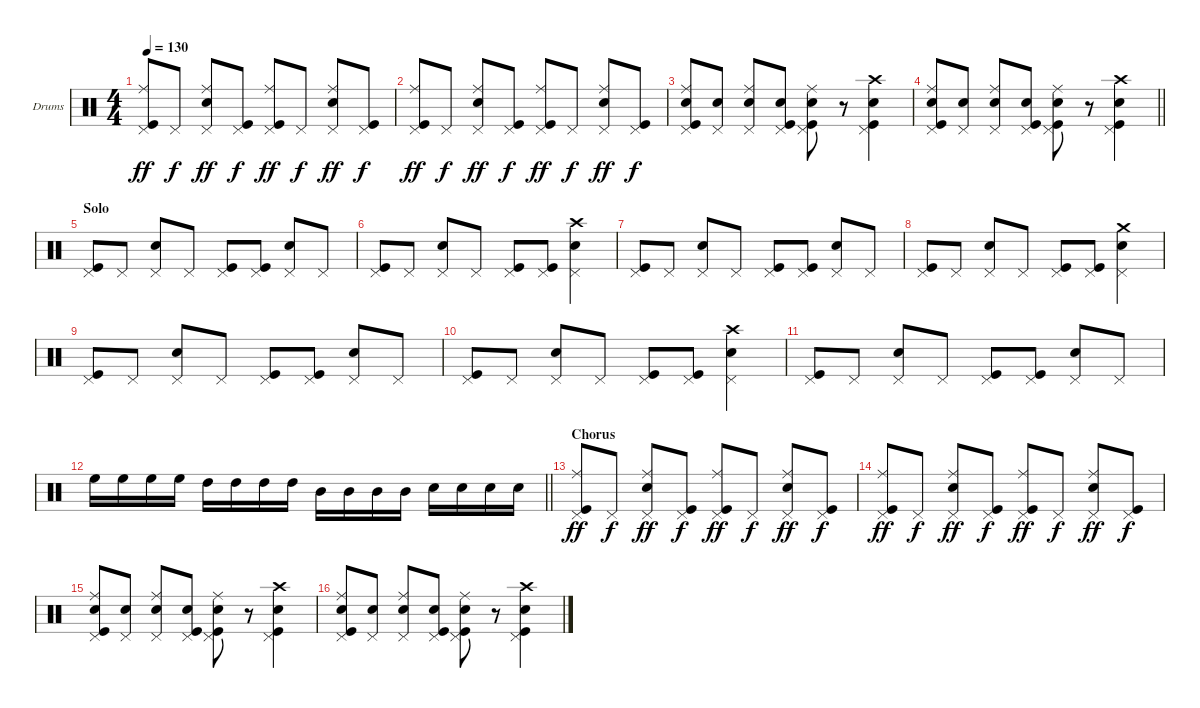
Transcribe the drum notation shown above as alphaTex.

\bracketExtendMode groupsimilarinstruments
\firstSystemTrackNameOrientation horizontal
\otherSystemsTrackNameOrientation horizontal
\track ("Drumkit" "Drums") {instrument percussion}
\staff {score}
\articulation defaults
\ts (4 4)
\tempo 130
\clef neutral
\ks c
("Ride (middle)" "Pedal Hi-Hat (hit)" "Kick (hit)").8{dy ff} "Pedal Hi-Hat (hit)".8{dy f} ("Ride (middle)" "Snare (hit) 2" "Pedal Hi-Hat (hit)").8{dy ff} ("Pedal Hi-Hat (hit)" "Kick (hit)").8{dy f} ("Ride (middle)" "Pedal Hi-Hat (hit)" "Kick (hit)").8{dy ff} "Pedal Hi-Hat (hit)".8{dy f} ("Ride (middle)" "Snare (hit) 2" "Pedal Hi-Hat (hit)").8{dy ff} ("Pedal Hi-Hat (hit)" "Kick (hit)").8{dy f} |
("Ride (middle)" "Pedal Hi-Hat (hit)" "Kick (hit)").8{dy ff} "Pedal Hi-Hat (hit)".8{dy f} ("Ride (middle)" "Snare (hit) 2" "Pedal Hi-Hat (hit)").8{dy ff} ("Pedal Hi-Hat (hit)" "Kick (hit)").8{dy f} ("Ride (middle)" "Pedal Hi-Hat (hit)" "Kick (hit)").8{dy ff} "Pedal Hi-Hat (hit)".8{dy f} ("Ride (middle)" "Snare (hit) 2" "Pedal Hi-Hat (hit)").8{dy ff} ("Pedal Hi-Hat (hit)" "Kick (hit)").8{dy f} |
("Ride (middle)" "Pedal Hi-Hat (hit)" "Snare (hit) 2" "Kick (hit)").8 ("Pedal Hi-Hat (hit)" "Snare (hit) 2").8 ("Ride (middle)" "Pedal Hi-Hat (hit)" "Snare (hit) 2").8 ("Pedal Hi-Hat (hit)" "Snare (hit) 2" "Kick (hit)").8 ("Ride (middle)" "Pedal Hi-Hat (hit)" "Snare (hit) 2" "Kick (hit)").8 r.8 ("Crash high (hit)" "Pedal Hi-Hat (hit)" "Snare (hit) 2" "Kick (hit)").4 |
\barLineRight lightlight
("Ride (middle)" "Pedal Hi-Hat (hit)" "Snare (hit) 2" "Kick (hit)").8 ("Pedal Hi-Hat (hit)" "Snare (hit) 2").8 ("Ride (middle)" "Pedal Hi-Hat (hit)" "Snare (hit) 2").8 ("Pedal Hi-Hat (hit)" "Snare (hit) 2" "Kick (hit)").8 ("Ride (middle)" "Pedal Hi-Hat (hit)" "Snare (hit) 2" "Kick (hit)").8 r.8 ("Crash high (hit)" "Pedal Hi-Hat (hit)" "Snare (hit) 2" "Kick (hit)").4 |
\section ("" "Solo")
("Pedal Hi-Hat (hit)" "Kick (hit)").8 "Pedal Hi-Hat (hit)".8 ("Snare (hit) 2" "Pedal Hi-Hat (hit)").8 "Pedal Hi-Hat (hit)".8 ("Pedal Hi-Hat (hit)" "Kick (hit)").8 ("Pedal Hi-Hat (hit)" "Kick (hit)").8 ("Snare (hit) 2" "Pedal Hi-Hat (hit)").8 "Pedal Hi-Hat (hit)".8 |
("Pedal Hi-Hat (hit)" "Kick (hit)").8 "Pedal Hi-Hat (hit)".8 ("Snare (hit) 2" "Pedal Hi-Hat (hit)").8 "Pedal Hi-Hat (hit)".8 ("Pedal Hi-Hat (hit)" "Kick (hit)").8 ("Pedal Hi-Hat (hit)" "Kick (hit)").8 ("Crash high (hit)" "Snare (hit) 2" "Pedal Hi-Hat (hit)").4 |
("Pedal Hi-Hat (hit)" "Kick (hit)").8 "Pedal Hi-Hat (hit)".8 ("Snare (hit) 2" "Pedal Hi-Hat (hit)").8 "Pedal Hi-Hat (hit)".8 ("Pedal Hi-Hat (hit)" "Kick (hit)").8 ("Pedal Hi-Hat (hit)" "Kick (hit)").8 ("Snare (hit) 2" "Pedal Hi-Hat (hit)").8 "Pedal Hi-Hat (hit)".8 |
("Pedal Hi-Hat (hit)" "Kick (hit)").8 "Pedal Hi-Hat (hit)".8 ("Snare (hit) 2" "Pedal Hi-Hat (hit)").8 "Pedal Hi-Hat (hit)".8 ("Pedal Hi-Hat (hit)" "Kick (hit)").8 ("Pedal Hi-Hat (hit)" "Kick (hit)").8 ("Crash medium (hit)" "Snare (hit) 2" "Pedal Hi-Hat (hit)").4 |
("Pedal Hi-Hat (hit)" "Kick (hit)").8 "Pedal Hi-Hat (hit)".8 ("Snare (hit) 2" "Pedal Hi-Hat (hit)").8 "Pedal Hi-Hat (hit)".8 ("Pedal Hi-Hat (hit)" "Kick (hit)").8 ("Pedal Hi-Hat (hit)" "Kick (hit)").8 ("Snare (hit) 2" "Pedal Hi-Hat (hit)").8 "Pedal Hi-Hat (hit)".8 |
("Pedal Hi-Hat (hit)" "Kick (hit)").8 "Pedal Hi-Hat (hit)".8 ("Snare (hit) 2" "Pedal Hi-Hat (hit)").8 "Pedal Hi-Hat (hit)".8 ("Pedal Hi-Hat (hit)" "Kick (hit)").8 ("Pedal Hi-Hat (hit)" "Kick (hit)").8 ("Crash high (hit)" "Snare (hit) 2" "Pedal Hi-Hat (hit)").4 |
("Pedal Hi-Hat (hit)" "Kick (hit)").8 "Pedal Hi-Hat (hit)".8 ("Snare (hit) 2" "Pedal Hi-Hat (hit)").8 "Pedal Hi-Hat (hit)".8 ("Pedal Hi-Hat (hit)" "Kick (hit)").8 ("Pedal Hi-Hat (hit)" "Kick (hit)").8 ("Snare (hit) 2" "Pedal Hi-Hat (hit)").8 "Pedal Hi-Hat (hit)".8 |
\barLineRight lightlight "High Floor Tom (hit)".16 "High Floor Tom (hit)".16 "High Floor Tom (hit)".16 "High Floor Tom (hit)".16 "High Tom (hit)".16 "High Tom (hit)".16 "High Tom (hit)".16 "High Tom (hit)".16 "Mid Tom (hit)".16 "Mid Tom (hit)".16 "Mid Tom (hit)".16 "Mid Tom (hit)".16 "Snare (hit) 2".16 "Snare (hit) 2".16 "Snare (hit) 2".16 "Snare (hit) 2".16
|
\section ("" "Chorus")
("Ride (middle)" "Pedal Hi-Hat (hit)" "Kick (hit)").8{dy ff} "Pedal Hi-Hat (hit)".8{dy f} ("Ride (middle)" "Snare (hit) 2" "Pedal Hi-Hat (hit)").8{dy ff} ("Pedal Hi-Hat (hit)" "Kick (hit)").8{dy f} ("Ride (middle)" "Pedal Hi-Hat (hit)" "Kick (hit)").8{dy ff} "Pedal Hi-Hat (hit)".8{dy f} ("Ride (middle)" "Snare (hit) 2" "Pedal Hi-Hat (hit)").8{dy ff} ("Pedal Hi-Hat (hit)" "Kick (hit)").8{dy f} |
("Ride (middle)" "Pedal Hi-Hat (hit)" "Kick (hit)").8{dy ff} "Pedal Hi-Hat (hit)".8{dy f} ("Ride (middle)" "Snare (hit) 2" "Pedal Hi-Hat (hit)").8{dy ff} ("Pedal Hi-Hat (hit)" "Kick (hit)").8{dy f} ("Ride (middle)" "Pedal Hi-Hat (hit)" "Kick (hit)").8{dy ff} "Pedal Hi-Hat (hit)".8{dy f} ("Ride (middle)" "Snare (hit) 2" "Pedal Hi-Hat (hit)").8{dy ff} ("Pedal Hi-Hat (hit)" "Kick (hit)").8{dy f} |
("Ride (middle)" "Pedal Hi-Hat (hit)" "Snare (hit) 2" "Kick (hit)").8 ("Pedal Hi-Hat (hit)" "Snare (hit) 2").8 ("Ride (middle)" "Pedal Hi-Hat (hit)" "Snare (hit) 2").8 ("Pedal Hi-Hat (hit)" "Snare (hit) 2" "Kick (hit)").8 ("Ride (middle)" "Pedal Hi-Hat (hit)" "Snare (hit) 2" "Kick (hit)").8 r.8 ("Crash high (hit)" "Pedal Hi-Hat (hit)" "Snare (hit) 2" "Kick (hit)").4 |
("Ride (middle)" "Pedal Hi-Hat (hit)" "Snare (hit) 2" "Kick (hit)").8 ("Pedal Hi-Hat (hit)" "Snare (hit) 2").8 ("Ride (middle)" "Pedal Hi-Hat (hit)" "Snare (hit) 2").8 ("Pedal Hi-Hat (hit)" "Snare (hit) 2" "Kick (hit)").8 ("Ride (middle)" "Pedal Hi-Hat (hit)" "Snare (hit) 2" "Kick (hit)").8 r.8 ("Crash high (hit)" "Pedal Hi-Hat (hit)" "Snare (hit) 2" "Kick (hit)").4
